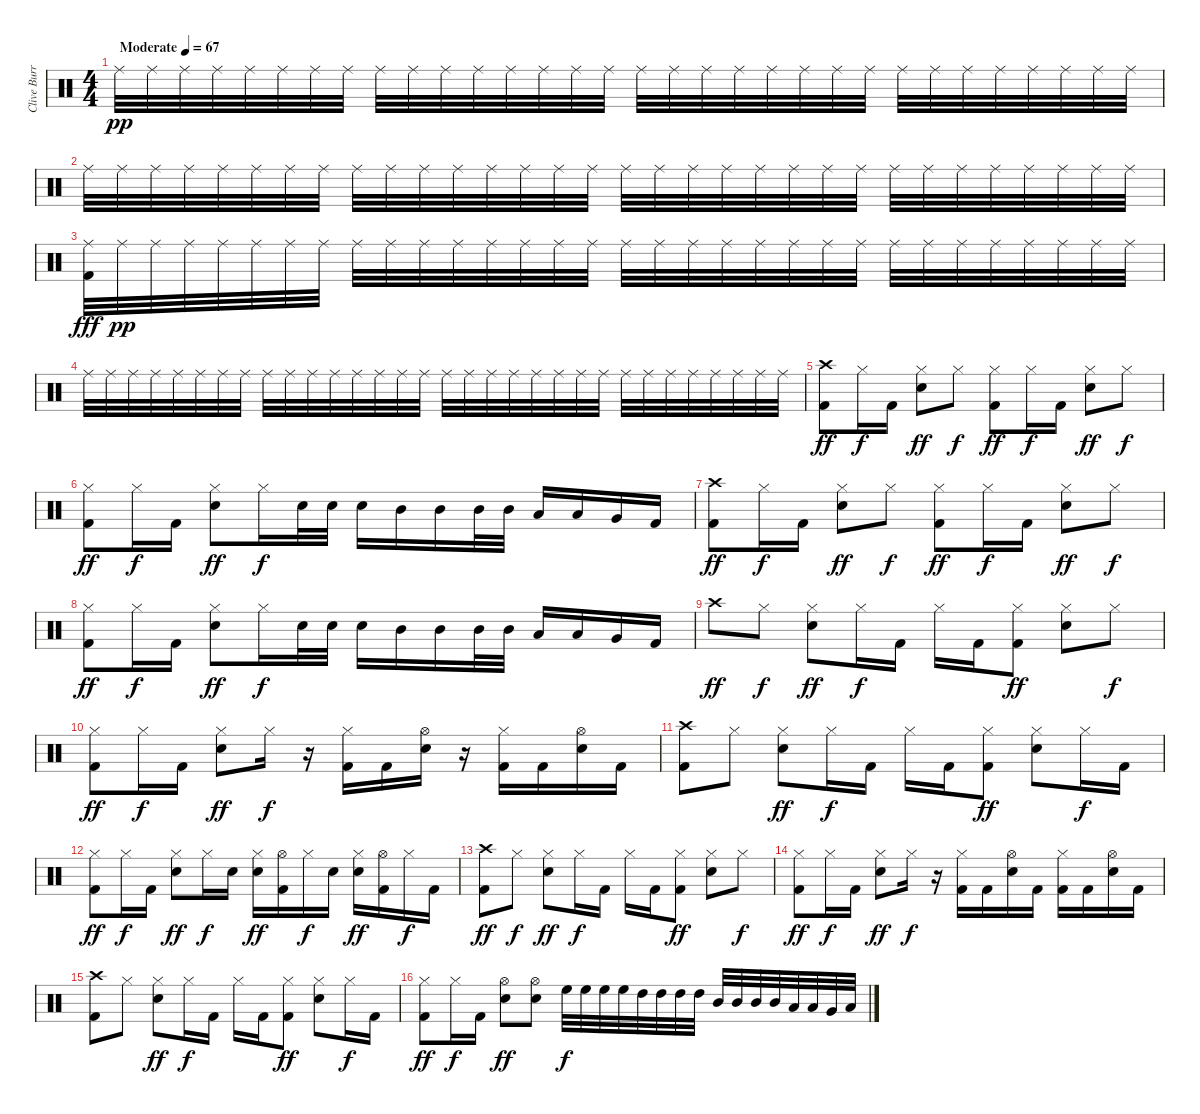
\track ("Clive Burr - Drums" "Clive Burr") {instrument percussion}
\staff {score}
\articulation defaults
\ts (4 4)
\tempo (67 "Moderate")
\clef neutral
\ks c "Ride (middle)".32{dy pp} "Ride (middle)".32 "Ride (middle)".32 "Ride (middle)".32 "Ride (middle)".32 "Ride (middle)".32 "Ride (middle)".32 "Ride (middle)".32 "Ride (middle)".32 "Ride (middle)".32 "Ride (middle)".32 "Ride (middle)".32 "Ride (middle)".32 "Ride (middle)".32 "Ride (middle)".32 "Ride (middle)".32 "Ride (middle)".32 "Ride (middle)".32 "Ride (middle)".32 "Ride (middle)".32 "Ride (middle)".32 "Ride (middle)".32 "Ride (middle)".32 "Ride (middle)".32 "Ride (middle)".32 "Ride (middle)".32 "Ride (middle)".32 "Ride (middle)".32 "Ride (middle)".32 "Ride (middle)".32 "Ride (middle)".32 "Ride (middle)".32
|
"Ride (middle)".32 "Ride (middle)".32 "Ride (middle)".32 "Ride (middle)".32 "Ride (middle)".32 "Ride (middle)".32 "Ride (middle)".32 "Ride (middle)".32 "Ride (middle)".32 "Ride (middle)".32 "Ride (middle)".32 "Ride (middle)".32 "Ride (middle)".32 "Ride (middle)".32 "Ride (middle)".32 "Ride (middle)".32 "Ride (middle)".32 "Ride (middle)".32 "Ride (middle)".32 "Ride (middle)".32 "Ride (middle)".32 "Ride (middle)".32 "Ride (middle)".32 "Ride (middle)".32 "Ride (middle)".32 "Ride (middle)".32 "Ride (middle)".32 "Ride (middle)".32 "Ride (middle)".32 "Ride (middle)".32 "Ride (middle)".32 "Ride (middle)".32 |
("Ride (middle)" "Kick (hit) 2").32{dy fff} "Ride (middle)".32{dy pp} "Ride (middle)".32 "Ride (middle)".32 "Ride (middle)".32 "Ride (middle)".32 "Ride (middle)".32 "Ride (middle)".32 "Ride (middle)".32 "Ride (middle)".32 "Ride (middle)".32 "Ride (middle)".32 "Ride (middle)".32 "Ride (middle)".32 "Ride (middle)".32 "Ride (middle)".32 "Ride (middle)".32 "Ride (middle)".32 "Ride (middle)".32 "Ride (middle)".32 "Ride (middle)".32 "Ride (middle)".32 "Ride (middle)".32 "Ride (middle)".32 "Ride (middle)".32 "Ride (middle)".32 "Ride (middle)".32 "Ride (middle)".32 "Ride (middle)".32 "Ride (middle)".32 "Ride (middle)".32 "Ride (middle)".32 |
"Ride (middle)".32 "Ride (middle)".32 "Ride (middle)".32 "Ride (middle)".32 "Ride (middle)".32 "Ride (middle)".32 "Ride (middle)".32 "Ride (middle)".32 "Ride (middle)".32 "Ride (middle)".32 "Ride (middle)".32 "Ride (middle)".32 "Ride (middle)".32 "Ride (middle)".32 "Ride (middle)".32 "Ride (middle)".32 "Ride (middle)".32 "Ride (middle)".32 "Ride (middle)".32 "Ride (middle)".32 "Ride (middle)".32 "Ride (middle)".32 "Ride (middle)".32 "Ride (middle)".32 "Ride (middle)".32 "Ride (middle)".32 "Ride (middle)".32 "Ride (middle)".32 "Ride (middle)".32 "Ride (middle)".32 "Ride (middle)".32 "Ride (middle)".32 |
("Crash high (hit)" "Kick (hit) 2").8{dy ff} "Hi-Hat (closed)".16{dy f} "Kick (hit) 2".16 ("Hi-Hat (closed)" "Snare (hit) 2").8{dy ff} "Hi-Hat (closed)".8{dy f} ("Hi-Hat (closed)" "Kick (hit) 2").8{dy ff} "Hi-Hat (closed)".16{dy f} "Kick (hit) 2".16 ("Hi-Hat (closed)" "Snare (hit) 2").8{dy ff} "Hi-Hat (closed)".8{dy f} |
("Hi-Hat (closed)" "Kick (hit) 2").8{dy ff} "Hi-Hat (closed)".16{dy f} "Kick (hit) 2".16 ("Hi-Hat (closed)" "Snare (hit) 2").8{dy ff} "Hi-Hat (closed)".16{dy f} "Snare (hit) 2".32 "Snare (hit) 2".32 "Snare (hit) 2".16 "Mid Tom (hit)".16 "Mid Tom (hit)".16 "Mid Tom (hit)".32 "Mid Tom (hit)".32 "Low Tom (hit)".16 "Low Tom (hit)".16 "Very Low Tom (hit)".16 "Kick (hit) 2".16 |
("Crash high (hit)" "Kick (hit) 2").8{dy ff} "Hi-Hat (closed)".16{dy f} "Kick (hit) 2".16 ("Hi-Hat (closed)" "Snare (hit) 2").8{dy ff} "Hi-Hat (closed)".8{dy f} ("Hi-Hat (closed)" "Kick (hit) 2").8{dy ff} "Hi-Hat (closed)".16{dy f} "Kick (hit) 2".16 ("Hi-Hat (closed)" "Snare (hit) 2").8{dy ff} "Hi-Hat (closed)".8{dy f} |
("Hi-Hat (closed)" "Kick (hit) 2").8{dy ff} "Hi-Hat (closed)".16{dy f} "Kick (hit) 2".16 ("Hi-Hat (closed)" "Snare (hit) 2").8{dy ff} "Hi-Hat (closed)".16{dy f} "Snare (hit) 2".32 "Snare (hit) 2".32 "Snare (hit) 2".16 "Mid Tom (hit)".16 "Mid Tom (hit)".16 "Mid Tom (hit)".32 "Mid Tom (hit)".32 "Low Tom (hit)".16 "Low Tom (hit)".16 "Very Low Tom (hit)".16 "Kick (hit) 2".16 |
"Crash high (hit)".8{dy ff} "Hi-Hat (closed)".8{dy f} ("Hi-Hat (closed)" "Snare (hit) 2").8{dy ff} "Hi-Hat (closed)".16{dy f} "Kick (hit) 2".16 "Hi-Hat (closed)".16 "Kick (hit) 2".16 ("Hi-Hat (closed)" "Kick (hit) 2").8{dy ff} ("Hi-Hat (closed)" "Snare (hit) 2").8 "Hi-Hat (closed)".8{dy f} |
("Hi-Hat (closed)" "Kick (hit) 2").8{dy ff} "Hi-Hat (closed)".16{dy f} "Kick (hit) 2".16 ("Hi-Hat (closed)" "Snare (hit) 2").8{dy ff} "Hi-Hat (closed)".16{dy f} r.16 ("Hi-Hat (closed)" "Kick (hit) 2").16 "Kick (hit) 2".16 ("Hi-Hat (open)" "Snare (hit) 2").16 r.16 ("Hi-Hat (closed)" "Kick (hit) 2").16 "Kick (hit) 2".16 ("Hi-Hat (open)" "Snare (hit) 2").16 "Kick (hit) 2".16 |
("Crash high (hit)" "Kick (hit) 2").8 "Hi-Hat (closed)".8 ("Hi-Hat (closed)" "Snare (hit) 2").8{dy ff} "Hi-Hat (closed)".16{dy f} "Kick (hit) 2".16 "Hi-Hat (closed)".16 "Kick (hit) 2".16 ("Hi-Hat (closed)" "Kick (hit) 2").8{dy ff} ("Hi-Hat (closed)" "Snare (hit) 2").8 "Hi-Hat (closed)".16{dy f} "Kick (hit) 2".16 |
("Hi-Hat (closed)" "Kick (hit) 2").8{dy ff} "Hi-Hat (closed)".16{dy f} "Kick (hit) 2".16 ("Hi-Hat (closed)" "Snare (hit) 2").8{dy ff} "Hi-Hat (closed)".16{dy f} "Snare (hit) 2".16 ("Hi-Hat (closed)" "Snare (hit) 2").16{dy ff} ("Hi-Hat (open)" "Kick (hit) 2").16 "Hi-Hat (closed)".16{dy f} "Snare (hit) 2".16 ("Hi-Hat (closed)" "Snare (hit) 2").16{dy ff} ("Hi-Hat (open)" "Kick (hit) 2").16 "Hi-Hat (closed)".16{dy f} "Kick (hit) 2".16 |
("Crash high (hit)" "Kick (hit) 2").8{dy ff} "Hi-Hat (closed)".8{dy f} ("Hi-Hat (closed)" "Snare (hit) 2").8{dy ff} "Hi-Hat (closed)".16{dy f} "Kick (hit) 2".16 "Hi-Hat (closed)".16 "Kick (hit) 2".16 ("Hi-Hat (closed)" "Kick (hit) 2").8{dy ff} ("Hi-Hat (closed)" "Snare (hit) 2").8 "Hi-Hat (closed)".8{dy f} |
("Hi-Hat (closed)" "Kick (hit) 2").8{dy ff} "Hi-Hat (closed)".16{dy f} "Kick (hit) 2".16 ("Hi-Hat (closed)" "Snare (hit) 2").8{dy ff} "Hi-Hat (closed)".16{dy f} r.16 ("Hi-Hat (closed)" "Kick (hit) 2").16 "Kick (hit) 2".16 ("Hi-Hat (open)" "Snare (hit) 2").16 "Kick (hit) 2".16 ("Hi-Hat (closed)" "Kick (hit) 2").16 "Kick (hit) 2".16 ("Hi-Hat (open)" "Snare (hit) 2").16 "Kick (hit) 2".16 |
("Crash high (hit)" "Kick (hit) 2").8 "Hi-Hat (closed)".8 ("Hi-Hat (closed)" "Snare (hit) 2").8{dy ff} "Hi-Hat (closed)".16{dy f} "Kick (hit) 2".16 "Hi-Hat (closed)".16 "Kick (hit) 2".16 ("Hi-Hat (closed)" "Kick (hit) 2").8{dy ff} ("Hi-Hat (closed)" "Snare (hit) 2").8 "Hi-Hat (closed)".16{dy f} "Kick (hit) 2".16 |
("Hi-Hat (closed)" "Kick (hit) 2").8{dy ff} "Hi-Hat (closed)".16{dy f} "Kick (hit) 2".16 ("Hi-Hat (open)" "Snare (hit) 2").8{dy ff} ("Hi-Hat (open)" "Snare (hit) 2").8 "High Floor Tom (hit)".32{dy f} "High Floor Tom (hit)".32 "High Floor Tom (hit)".32 "High Floor Tom (hit)".32 "High Tom (hit)".32 "High Tom (hit)".32 "High Tom (hit)".32 "High Tom (hit)".32 "Mid Tom (hit)".32 "Mid Tom (hit)".32 "Mid Tom (hit)".32 "Mid Tom (hit)".32 "Low Tom (hit)".32 "Low Tom (hit)".32 "Very Low Tom (hit)".32 "Low Floor Tom (hit)".32
